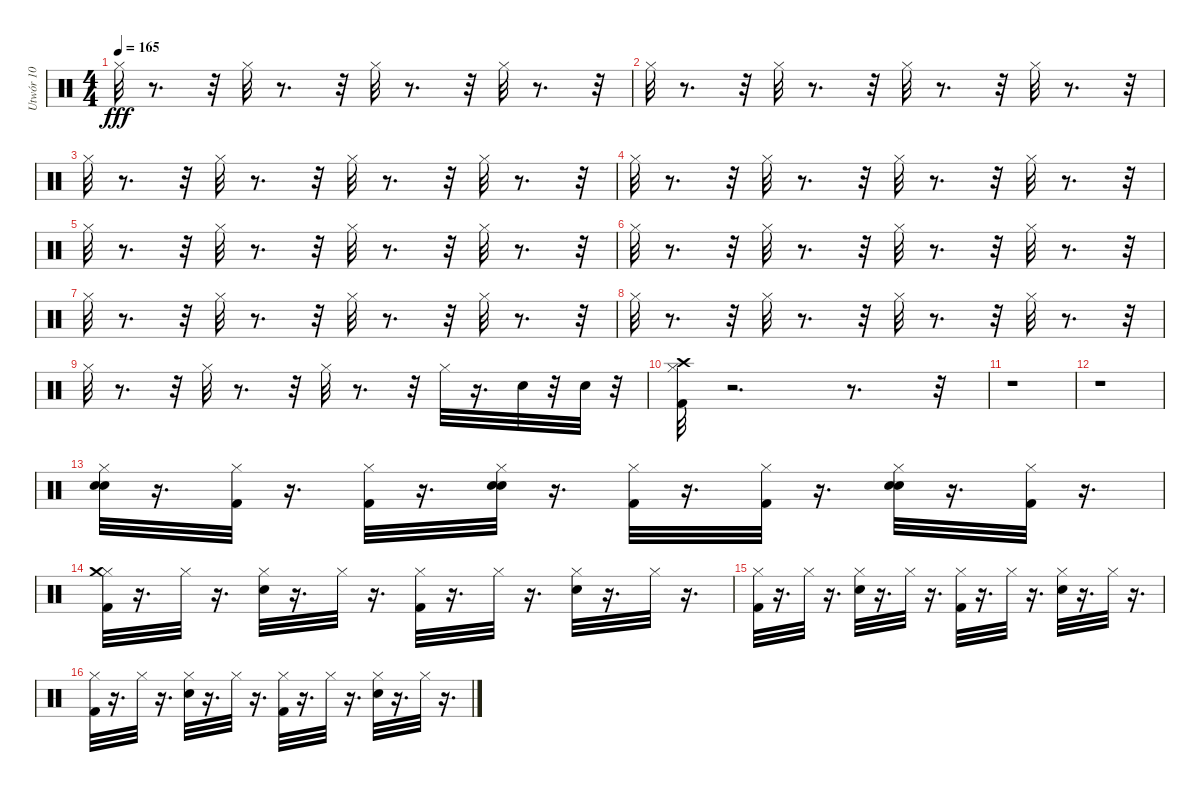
\track ("Utwór 10" "Utwór 10") {instrument percussion}
\staff {score}
\articulation defaults
\ts (4 4)
\tempo 165
\clef neutral
\ks c "Hi-Hat (closed)".32{dy fff}
r.8{d} r.32 "Hi-Hat (closed)".32 r.8{d} r.32 "Hi-Hat (closed)".32 r.8{d} r.32 "Hi-Hat (closed)".32 r.8{d} r.32 |
"Hi-Hat (closed)".32 r.8{d} r.32 "Hi-Hat (closed)".32 r.8{d} r.32 "Hi-Hat (closed)".32 r.8{d} r.32 "Hi-Hat (closed)".32 r.8{d} r.32 |
"Hi-Hat (closed)".32 r.8{d} r.32 "Hi-Hat (closed)".32 r.8{d} r.32 "Hi-Hat (closed)".32 r.8{d} r.32 "Hi-Hat (closed)".32 r.8{d} r.32 |
"Hi-Hat (closed)".32 r.8{d} r.32 "Hi-Hat (closed)".32 r.8{d} r.32 "Hi-Hat (closed)".32 r.8{d} r.32 "Hi-Hat (closed)".32 r.8{d} r.32 |
"Hi-Hat (closed)".32 r.8{d} r.32 "Hi-Hat (closed)".32 r.8{d} r.32 "Hi-Hat (closed)".32 r.8{d} r.32 "Hi-Hat (closed)".32 r.8{d} r.32 |
"Hi-Hat (closed)".32 r.8{d} r.32 "Hi-Hat (closed)".32 r.8{d} r.32 "Hi-Hat (closed)".32 r.8{d} r.32 "Hi-Hat (closed)".32 r.8{d} r.32 |
"Hi-Hat (closed)".32 r.8{d} r.32 "Hi-Hat (closed)".32 r.8{d} r.32 "Hi-Hat (closed)".32 r.8{d} r.32 "Hi-Hat (closed)".32 r.8{d} r.32 |
"Hi-Hat (closed)".32 r.8{d} r.32 "Hi-Hat (closed)".32 r.8{d} r.32 "Hi-Hat (closed)".32 r.8{d} r.32 "Hi-Hat (closed)".32 r.8{d} r.32 |
"Hi-Hat (closed)".32 r.8{d} r.32 "Hi-Hat (closed)".32 r.8{d} r.32 "Hi-Hat (closed)".32 r.8{d} r.32 "Hi-Hat (closed)".32 r.16{d} "Snare (hit) 2".32 r.32 "Electric Snare (hit)".32 r.32 |
("Kick (hit) 2" "Hi-Hat (closed)" "Crash high (hit)").32 r.2{d} r.8{d} r.32 |
r.1 |
r.1 |
("Electric Snare (hit)" "Hi-Hat (closed)" "Electric Snare (hit)").32 r.16{d} ("Kick (hit) 2" "Hi-Hat (closed)").32 r.16{d} ("Hi-Hat (closed)" "Kick (hit) 2").32 r.16{d} ("Electric Snare (hit)" "Electric Snare (hit)" "Hi-Hat (closed)").32 r.16{d} ("Hi-Hat (closed)" "Kick (hit) 2").32 r.16{d} ("Hi-Hat (closed)" "Kick (hit) 2").32 r.16{d} ("Electric Snare (hit)" "Hi-Hat (closed)" "Electric Snare (hit)").32 r.16{d} ("Kick (hit) 2" "Hi-Hat (closed)").32 r.16{d} |
("Kick (hit) 2" "Hi-Hat (closed)" "Crash medium (hit)").32 r.16{d} "Hi-Hat (closed)".32 r.16{d} ("Hi-Hat (closed)" "Electric Snare (hit)").32 r.16{d} "Hi-Hat (closed)".32 r.16{d} ("Hi-Hat (closed)" "Kick (hit) 2").32 r.16{d} "Hi-Hat (closed)".32 r.16{d} ("Hi-Hat (closed)" "Electric Snare (hit)").32 r.16{d} "Hi-Hat (closed)".32 r.16{d} |
("Hi-Hat (closed)" "Kick (hit) 2").32 r.16{d} "Hi-Hat (closed)".32 r.16{d} ("Hi-Hat (closed)" "Electric Snare (hit)").32 r.16{d} "Hi-Hat (closed)".32 r.16{d} ("Hi-Hat (closed)" "Kick (hit) 2").32 r.16{d} "Hi-Hat (closed)".32 r.16{d} ("Hi-Hat (closed)" "Electric Snare (hit)").32 r.16{d} "Hi-Hat (closed)".32 r.16{d} |
("Hi-Hat (closed)" "Kick (hit) 2").32 r.16{d} "Hi-Hat (closed)".32 r.16{d} ("Hi-Hat (closed)" "Electric Snare (hit)").32 r.16{d} "Hi-Hat (closed)".32 r.16{d} ("Hi-Hat (closed)" "Kick (hit) 2").32 r.16{d} "Hi-Hat (closed)".32 r.16{d} ("Hi-Hat (closed)" "Electric Snare (hit)").32 r.16{d} "Hi-Hat (closed)".32 r.16{d}
